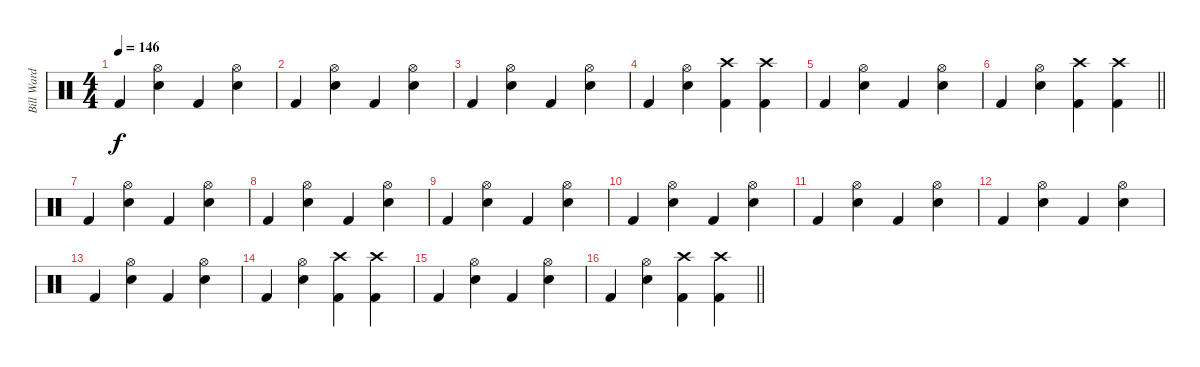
\track ("Bill Ward" "Bill Ward") {instrument percussion}
\staff {score}
\articulation defaults
\ts (4 4)
\tempo 146
\clef neutral
\ks c "Kick (hit) 2".4{dy f}
("Hi-Hat (open)" "Snare (hit) 2").4 "Kick (hit) 2".4 ("Hi-Hat (open)" "Snare (hit) 2").4 |
"Kick (hit) 2".4 ("Hi-Hat (open)" "Snare (hit) 2").4 "Kick (hit) 2".4 ("Hi-Hat (open)" "Snare (hit) 2").4 |
"Kick (hit) 2".4 ("Hi-Hat (open)" "Snare (hit) 2").4 "Kick (hit) 2".4 ("Hi-Hat (open)" "Snare (hit) 2").4 |
"Kick (hit) 2".4 ("Hi-Hat (open)" "Snare (hit) 2").4 ("Crash high (hit)" "Kick (hit) 2").4 ("Crash high (hit)" "Kick (hit) 2").4 |
"Kick (hit) 2".4 ("Hi-Hat (open)" "Snare (hit) 2").4 "Kick (hit) 2".4 ("Hi-Hat (open)" "Snare (hit) 2").4 |
\barLineRight lightlight "Kick (hit) 2".4
("Hi-Hat (open)" "Snare (hit) 2").4 ("Crash high (hit)" "Kick (hit) 2").4 ("Crash high (hit)" "Kick (hit) 2").4 |
"Kick (hit) 2".4 ("Hi-Hat (open)" "Snare (hit) 2").4 "Kick (hit) 2".4 ("Hi-Hat (open)" "Snare (hit) 2").4 |
"Kick (hit) 2".4 ("Hi-Hat (open)" "Snare (hit) 2").4 "Kick (hit) 2".4 ("Hi-Hat (open)" "Snare (hit) 2").4 |
"Kick (hit) 2".4 ("Hi-Hat (open)" "Snare (hit) 2").4 "Kick (hit) 2".4 ("Hi-Hat (open)" "Snare (hit) 2").4 |
"Kick (hit) 2".4 ("Hi-Hat (open)" "Snare (hit) 2").4 "Kick (hit) 2".4 ("Hi-Hat (open)" "Snare (hit) 2").4 |
"Kick (hit) 2".4 ("Hi-Hat (open)" "Snare (hit) 2").4 "Kick (hit) 2".4 ("Hi-Hat (open)" "Snare (hit) 2").4 |
"Kick (hit) 2".4 ("Hi-Hat (open)" "Snare (hit) 2").4 "Kick (hit) 2".4 ("Hi-Hat (open)" "Snare (hit) 2").4 |
"Kick (hit) 2".4 ("Hi-Hat (open)" "Snare (hit) 2").4 "Kick (hit) 2".4 ("Hi-Hat (open)" "Snare (hit) 2").4 |
"Kick (hit) 2".4 ("Hi-Hat (open)" "Snare (hit) 2").4 ("Crash high (hit)" "Kick (hit) 2").4 ("Crash high (hit)" "Kick (hit) 2").4 |
"Kick (hit) 2".4 ("Hi-Hat (open)" "Snare (hit) 2").4 "Kick (hit) 2".4 ("Hi-Hat (open)" "Snare (hit) 2").4 |
\barLineRight lightlight "Kick (hit) 2".4
("Hi-Hat (open)" "Snare (hit) 2").4 ("Crash high (hit)" "Kick (hit) 2").4 ("Crash high (hit)" "Kick (hit) 2").4
